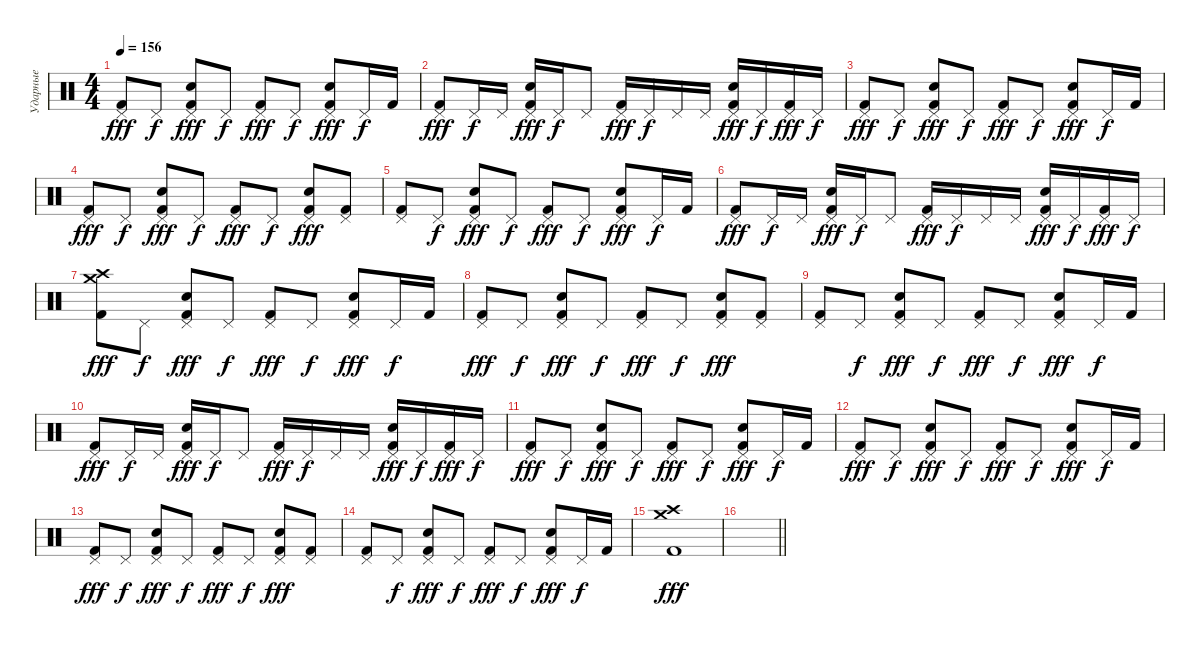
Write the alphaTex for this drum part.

\track ("Ударные" "Ударные") {instrument percussion}
\staff {score}
\articulation defaults
\ts (4 4)
\tempo 156
\clef neutral
\ks c
("Pedal Hi-Hat (hit)" "Kick (hit) 2").8{dy fff} "Pedal Hi-Hat (hit)".8{dy f} ("Pedal Hi-Hat (hit)" "Electric Snare (hit)" "Kick (hit) 2").8{dy fff} "Pedal Hi-Hat (hit)".8{dy f} ("Pedal Hi-Hat (hit)" "Kick (hit) 2").8{dy fff} "Pedal Hi-Hat (hit)".8{dy f} ("Pedal Hi-Hat (hit)" "Electric Snare (hit)" "Kick (hit) 2").8{dy fff} "Pedal Hi-Hat (hit)".16{dy f} "Kick (hit) 2".16 |
("Pedal Hi-Hat (hit)" "Kick (hit) 2").8{dy fff} "Pedal Hi-Hat (hit)".16{dy f} "Pedal Hi-Hat (hit)".16 ("Pedal Hi-Hat (hit)" "Electric Snare (hit)" "Kick (hit) 2").16{dy fff} "Pedal Hi-Hat (hit)".16{dy f} "Pedal Hi-Hat (hit)".8 ("Pedal Hi-Hat (hit)" "Kick (hit) 2").16{dy fff} "Pedal Hi-Hat (hit)".16{dy f} "Pedal Hi-Hat (hit)".16 "Pedal Hi-Hat (hit)".16 ("Pedal Hi-Hat (hit)" "Electric Snare (hit)" "Kick (hit) 2").16{dy fff} "Pedal Hi-Hat (hit)".16{dy f} ("Pedal Hi-Hat (hit)" "Kick (hit) 2").16{dy fff} "Pedal Hi-Hat (hit)".16{dy f} |
("Pedal Hi-Hat (hit)" "Kick (hit) 2").8{dy fff} "Pedal Hi-Hat (hit)".8{dy f} ("Pedal Hi-Hat (hit)" "Electric Snare (hit)" "Kick (hit) 2").8{dy fff} "Pedal Hi-Hat (hit)".8{dy f} ("Pedal Hi-Hat (hit)" "Kick (hit) 2").8{dy fff} "Pedal Hi-Hat (hit)".8{dy f} ("Pedal Hi-Hat (hit)" "Electric Snare (hit)" "Kick (hit) 2").8{dy fff} "Pedal Hi-Hat (hit)".16{dy f} "Kick (hit) 2".16 |
("Pedal Hi-Hat (hit)" "Kick (hit) 2").8{dy fff} "Pedal Hi-Hat (hit)".8{dy f} ("Pedal Hi-Hat (hit)" "Electric Snare (hit)" "Kick (hit) 2").8{dy fff} "Pedal Hi-Hat (hit)".8{dy f} ("Pedal Hi-Hat (hit)" "Kick (hit) 2").8{dy fff} "Pedal Hi-Hat (hit)".8{dy f} ("Pedal Hi-Hat (hit)" "Electric Snare (hit)" "Kick (hit) 2").8{dy fff} ("Pedal Hi-Hat (hit)" "Kick (hit) 2").8 |
("Pedal Hi-Hat (hit)" "Kick (hit) 2").8 "Pedal Hi-Hat (hit)".8{dy f} ("Pedal Hi-Hat (hit)" "Electric Snare (hit)" "Kick (hit) 2").8{dy fff} "Pedal Hi-Hat (hit)".8{dy f} ("Pedal Hi-Hat (hit)" "Kick (hit) 2").8{dy fff} "Pedal Hi-Hat (hit)".8{dy f} ("Pedal Hi-Hat (hit)" "Electric Snare (hit)" "Kick (hit) 2").8{dy fff} "Pedal Hi-Hat (hit)".16{dy f} "Kick (hit) 2".16 |
("Pedal Hi-Hat (hit)" "Kick (hit) 2").8{dy fff} "Pedal Hi-Hat (hit)".16{dy f} "Pedal Hi-Hat (hit)".16 ("Pedal Hi-Hat (hit)" "Electric Snare (hit)" "Kick (hit) 2").16{dy fff} "Pedal Hi-Hat (hit)".16{dy f} "Pedal Hi-Hat (hit)".8 ("Pedal Hi-Hat (hit)" "Kick (hit) 2").16{dy fff} "Pedal Hi-Hat (hit)".16{dy f} "Pedal Hi-Hat (hit)".16 "Pedal Hi-Hat (hit)".16 ("Pedal Hi-Hat (hit)" "Electric Snare (hit)" "Kick (hit) 2").16{dy fff} "Pedal Hi-Hat (hit)".16{dy f} ("Pedal Hi-Hat (hit)" "Kick (hit) 2").16{dy fff} "Pedal Hi-Hat (hit)".16{dy f} |
("Crash medium (hit)" "Crash high (hit)" "Kick (hit) 2").8{dy fff} "Pedal Hi-Hat (hit)".8{dy f} ("Pedal Hi-Hat (hit)" "Electric Snare (hit)" "Kick (hit) 2").8{dy fff} "Pedal Hi-Hat (hit)".8{dy f} ("Pedal Hi-Hat (hit)" "Kick (hit) 2").8{dy fff} "Pedal Hi-Hat (hit)".8{dy f} ("Pedal Hi-Hat (hit)" "Electric Snare (hit)" "Kick (hit) 2").8{dy fff} "Pedal Hi-Hat (hit)".16{dy f} "Kick (hit) 2".16 |
("Pedal Hi-Hat (hit)" "Kick (hit) 2").8{dy fff} "Pedal Hi-Hat (hit)".8{dy f} ("Pedal Hi-Hat (hit)" "Electric Snare (hit)" "Kick (hit) 2").8{dy fff} "Pedal Hi-Hat (hit)".8{dy f} ("Pedal Hi-Hat (hit)" "Kick (hit) 2").8{dy fff} "Pedal Hi-Hat (hit)".8{dy f} ("Pedal Hi-Hat (hit)" "Electric Snare (hit)" "Kick (hit) 2").8{dy fff} ("Pedal Hi-Hat (hit)" "Kick (hit) 2").8 |
("Pedal Hi-Hat (hit)" "Kick (hit) 2").8 "Pedal Hi-Hat (hit)".8{dy f} ("Pedal Hi-Hat (hit)" "Electric Snare (hit)" "Kick (hit) 2").8{dy fff} "Pedal Hi-Hat (hit)".8{dy f} ("Pedal Hi-Hat (hit)" "Kick (hit) 2").8{dy fff} "Pedal Hi-Hat (hit)".8{dy f} ("Pedal Hi-Hat (hit)" "Electric Snare (hit)" "Kick (hit) 2").8{dy fff} "Pedal Hi-Hat (hit)".16{dy f} "Kick (hit) 2".16 |
("Pedal Hi-Hat (hit)" "Kick (hit) 2").8{dy fff} "Pedal Hi-Hat (hit)".16{dy f} "Pedal Hi-Hat (hit)".16 ("Pedal Hi-Hat (hit)" "Electric Snare (hit)" "Kick (hit) 2").16{dy fff} "Pedal Hi-Hat (hit)".16{dy f} "Pedal Hi-Hat (hit)".8 ("Pedal Hi-Hat (hit)" "Kick (hit) 2").16{dy fff} "Pedal Hi-Hat (hit)".16{dy f} "Pedal Hi-Hat (hit)".16 "Pedal Hi-Hat (hit)".16 ("Pedal Hi-Hat (hit)" "Electric Snare (hit)" "Kick (hit) 2").16{dy fff} "Pedal Hi-Hat (hit)".16{dy f} ("Pedal Hi-Hat (hit)" "Kick (hit) 2").16{dy fff} "Pedal Hi-Hat (hit)".16{dy f} |
("Pedal Hi-Hat (hit)" "Kick (hit) 2").8{dy fff} "Pedal Hi-Hat (hit)".8{dy f} ("Pedal Hi-Hat (hit)" "Electric Snare (hit)" "Kick (hit) 2").8{dy fff} "Pedal Hi-Hat (hit)".8{dy f} ("Pedal Hi-Hat (hit)" "Kick (hit) 2").8{dy fff} "Pedal Hi-Hat (hit)".8{dy f} ("Pedal Hi-Hat (hit)" "Electric Snare (hit)" "Kick (hit) 2").8{dy fff} "Pedal Hi-Hat (hit)".16{dy f} "Kick (hit) 2".16 |
("Pedal Hi-Hat (hit)" "Kick (hit) 2").8{dy fff} "Pedal Hi-Hat (hit)".8{dy f} ("Pedal Hi-Hat (hit)" "Electric Snare (hit)" "Kick (hit) 2").8{dy fff} "Pedal Hi-Hat (hit)".8{dy f} ("Pedal Hi-Hat (hit)" "Kick (hit) 2").8{dy fff} "Pedal Hi-Hat (hit)".8{dy f} ("Pedal Hi-Hat (hit)" "Electric Snare (hit)" "Kick (hit) 2").8{dy fff} "Pedal Hi-Hat (hit)".16{dy f} "Kick (hit) 2".16 |
("Pedal Hi-Hat (hit)" "Kick (hit) 2").8{dy fff} "Pedal Hi-Hat (hit)".8{dy f} ("Pedal Hi-Hat (hit)" "Electric Snare (hit)" "Kick (hit) 2").8{dy fff} "Pedal Hi-Hat (hit)".8{dy f} ("Pedal Hi-Hat (hit)" "Kick (hit) 2").8{dy fff} "Pedal Hi-Hat (hit)".8{dy f} ("Pedal Hi-Hat (hit)" "Electric Snare (hit)" "Kick (hit) 2").8{dy fff} ("Pedal Hi-Hat (hit)" "Kick (hit) 2").8 |
("Pedal Hi-Hat (hit)" "Kick (hit) 2").8 "Pedal Hi-Hat (hit)".8{dy f} ("Pedal Hi-Hat (hit)" "Electric Snare (hit)" "Kick (hit) 2").8{dy fff} "Pedal Hi-Hat (hit)".8{dy f} ("Pedal Hi-Hat (hit)" "Kick (hit) 2").8{dy fff} "Pedal Hi-Hat (hit)".8{dy f} ("Pedal Hi-Hat (hit)" "Electric Snare (hit)" "Kick (hit) 2").8{dy fff} "Pedal Hi-Hat (hit)".16{dy f} "Kick (hit) 2".16 |
("Crash high (hit)" "Crash medium (hit)" "Kick (hit) 2").1{dy fff} |
\barLineRight lightlight
